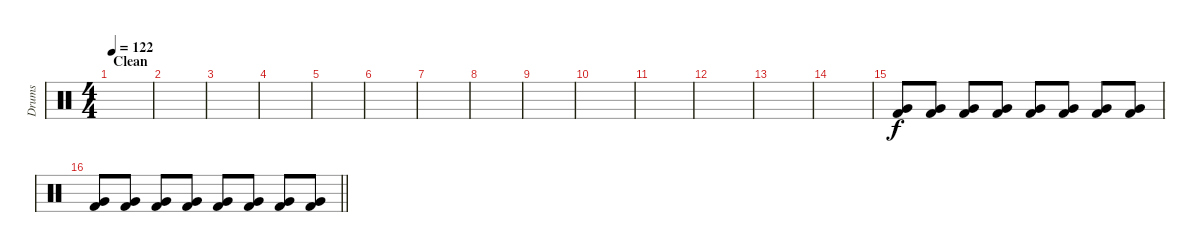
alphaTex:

\track ("Drums" "Drums") {instrument percussion}
\staff {score}
\articulation defaults
\ts (4 4)
\section ("" "Clean")
\tempo 122
\clef neutral
\ks c
|
|
|
|
|
|
|
|
|
|
|
|
|
|
("Very Low Tom (hit)" "Kick (hit) 2").8{volume 12} ("Very Low Tom (hit)" "Kick (hit) 2").8 ("Very Low Tom (hit)" "Kick (hit) 2").8 ("Very Low Tom (hit)" "Kick (hit) 2").8 ("Very Low Tom (hit)" "Kick (hit) 2").8 ("Very Low Tom (hit)" "Kick (hit) 2").8 ("Very Low Tom (hit)" "Kick (hit) 2").8 ("Very Low Tom (hit)" "Kick (hit) 2").8 |
\barLineRight lightlight
("Very Low Tom (hit)" "Kick (hit) 2").8{volume 16} ("Very Low Tom (hit)" "Kick (hit) 2").8 ("Very Low Tom (hit)" "Kick (hit) 2").8 ("Very Low Tom (hit)" "Kick (hit) 2").8 ("Very Low Tom (hit)" "Kick (hit) 2").8 ("Very Low Tom (hit)" "Kick (hit) 2").8 ("Very Low Tom (hit)" "Kick (hit) 2").8 ("Very Low Tom (hit)" "Kick (hit) 2").8
